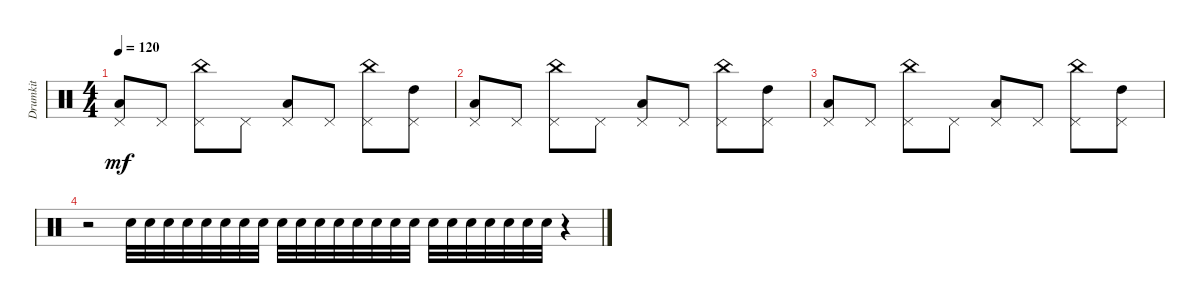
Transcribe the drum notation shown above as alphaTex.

\track ("Drumkit" "Drumkit") {instrument percussion}
\staff {score}
\articulation defaults
\ts (4 4)
\tempo 120
\clef neutral
\ks c
("Pedal Hi-Hat (hit)" "Low Tom (hit)").8{dy mf} "Pedal Hi-Hat (hit)".8 ("Pedal Hi-Hat (hit)" "China (hit)").8 "Pedal Hi-Hat (hit)".8 ("Pedal Hi-Hat (hit)" "Low Tom (hit)").8 "Pedal Hi-Hat (hit)".8 ("Pedal Hi-Hat (hit)" "China (hit)").8 ("Pedal Hi-Hat (hit)" "High Tom (hit)").8 |
("Pedal Hi-Hat (hit)" "Low Tom (hit)").8 "Pedal Hi-Hat (hit)".8 ("Pedal Hi-Hat (hit)" "China (hit)").8 "Pedal Hi-Hat (hit)".8 ("Pedal Hi-Hat (hit)" "Low Tom (hit)").8 "Pedal Hi-Hat (hit)".8 ("Pedal Hi-Hat (hit)" "China (hit)").8 ("Pedal Hi-Hat (hit)" "High Tom (hit)").8 |
("Pedal Hi-Hat (hit)" "Low Tom (hit)").8 "Pedal Hi-Hat (hit)".8 ("Pedal Hi-Hat (hit)" "China (hit)").8 "Pedal Hi-Hat (hit)".8 ("Pedal Hi-Hat (hit)" "Low Tom (hit)").8 "Pedal Hi-Hat (hit)".8 ("Pedal Hi-Hat (hit)" "China (hit)").8 ("Pedal Hi-Hat (hit)" "High Tom (hit)").8 |
r.2 "Snare (hit) 2".32 "Snare (hit) 2".32 "Snare (hit) 2".32 "Snare (hit) 2".32 "Snare (hit) 2".32 "Snare (hit) 2".32 "Snare (hit) 2".32 "Snare (hit) 2".32 "Snare (hit) 2".32 "Snare (hit) 2".32 "Snare (hit) 2".32 "Snare (hit) 2".32 "Snare (hit) 2".32 "Snare (hit) 2".32 "Snare (hit) 2".32 "Snare (hit) 2".32 "Snare (hit) 2".32 "Snare (hit) 2".32 "Snare (hit) 2".32 "Snare (hit) 2".32 "Snare (hit) 2".32 "Snare (hit) 2".32 "Snare (hit) 2".32 r.4
